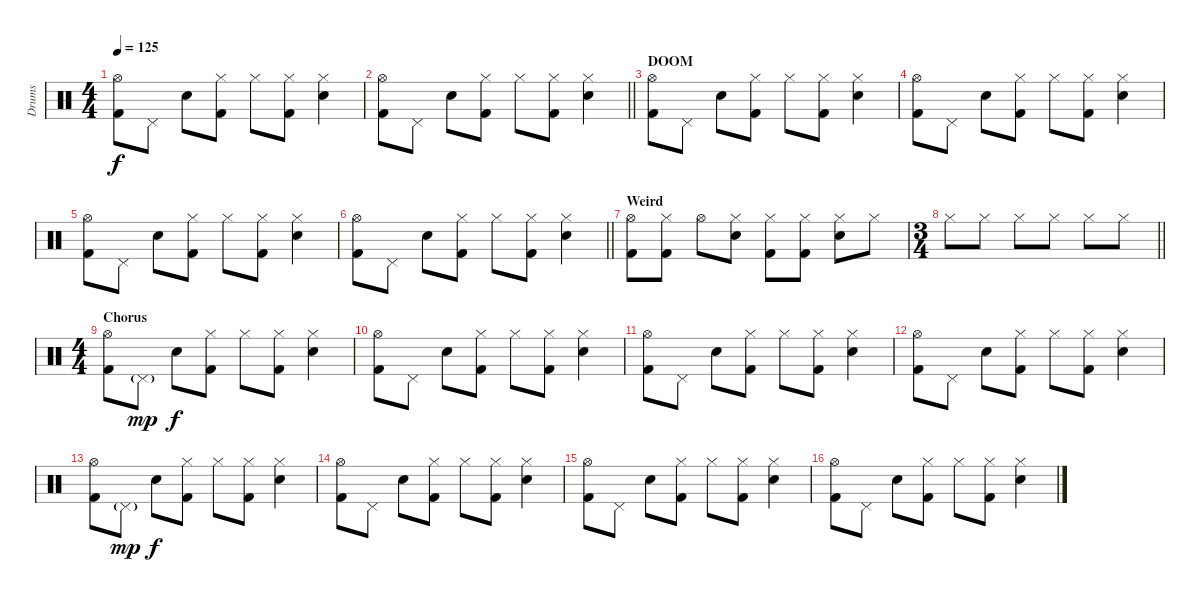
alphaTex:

\track ("Drums" "Drums") {instrument percussion}
\staff {score}
\articulation defaults
\ts (4 4)
\tempo 125
\clef neutral
\ks c
("Hi-Hat (open)" "Kick (hit) 2").8{dy f} "Pedal Hi-Hat (hit)".8 "Hand Clap (hit)".8 ("Hi-Hat (closed)" "Kick (hit) 2").8 "Hi-Hat (closed)".8 ("Hi-Hat (closed)" "Kick (hit) 2").8 ("Hi-Hat (closed)" "Hand Clap (hit)").4 |
\barLineRight lightlight
("Hi-Hat (open)" "Kick (hit) 2").8 "Pedal Hi-Hat (hit)".8 "Hand Clap (hit)".8 ("Hi-Hat (closed)" "Kick (hit) 2").8 "Hi-Hat (closed)".8 ("Hi-Hat (closed)" "Kick (hit) 2").8 ("Hi-Hat (closed)" "Hand Clap (hit)").4 |
\section ("" "DOOM")
("Hi-Hat (open)" "Kick (hit) 2").8 "Pedal Hi-Hat (hit)".8 "Hand Clap (hit)".8 ("Hi-Hat (closed)" "Kick (hit) 2").8 "Hi-Hat (closed)".8 ("Hi-Hat (closed)" "Kick (hit) 2").8 ("Hi-Hat (closed)" "Hand Clap (hit)").4 |
("Hi-Hat (open)" "Kick (hit) 2").8 "Pedal Hi-Hat (hit)".8 "Hand Clap (hit)".8 ("Hi-Hat (closed)" "Kick (hit) 2").8 "Hi-Hat (closed)".8 ("Hi-Hat (closed)" "Kick (hit) 2").8 ("Hi-Hat (closed)" "Hand Clap (hit)").4 |
("Hi-Hat (open)" "Kick (hit) 2").8 "Pedal Hi-Hat (hit)".8 "Hand Clap (hit)".8 ("Hi-Hat (closed)" "Kick (hit) 2").8 "Hi-Hat (closed)".8 ("Hi-Hat (closed)" "Kick (hit) 2").8 ("Hi-Hat (closed)" "Hand Clap (hit)").4 |
\barLineRight lightlight
("Hi-Hat (open)" "Kick (hit) 2").8 "Pedal Hi-Hat (hit)".8 "Hand Clap (hit)".8 ("Hi-Hat (closed)" "Kick (hit) 2").8 "Hi-Hat (closed)".8 ("Hi-Hat (closed)" "Kick (hit) 2").8 ("Hi-Hat (closed)" "Hand Clap (hit)").4 |
\section ("" "Weird")
("Hi-Hat (open)" "Kick (hit) 2").8 ("Hi-Hat (closed)" "Kick (hit) 2").8 "Hi-Hat (open)".8 ("Hi-Hat (closed)" "Electric Snare (hit)").8 ("Hi-Hat (closed)" "Kick (hit) 2").8 ("Hi-Hat (closed)" "Kick (hit) 2").8 ("Hi-Hat (closed)" "Electric Snare (hit)").8 "Hi-Hat (closed)".8 |
\ts (3 4)
\barLineRight lightlight "Hi-Hat (closed)".8 "Hi-Hat (closed)".8 "Hi-Hat (closed)".8 "Hi-Hat (closed)".8 "Hi-Hat (closed)".8 "Hi-Hat (closed)".8
|
\ts (4 4)
\section ("" "Chorus")
("Hi-Hat (open)" "Kick (hit) 2").8 "Pedal Hi-Hat (hit)"{g}.8{dy mp} "Hand Clap (hit)".8{dy f} ("Hi-Hat (closed)" "Kick (hit) 2").8 "Hi-Hat (closed)".8 ("Hi-Hat (closed)" "Kick (hit) 2").8 ("Hi-Hat (closed)" "Hand Clap (hit)").4 |
("Hi-Hat (open)" "Kick (hit) 2").8 "Pedal Hi-Hat (hit)".8 "Hand Clap (hit)".8 ("Hi-Hat (closed)" "Kick (hit) 2").8 "Hi-Hat (closed)".8 ("Hi-Hat (closed)" "Kick (hit) 2").8 ("Hi-Hat (closed)" "Hand Clap (hit)").4 |
("Hi-Hat (open)" "Kick (hit) 2").8 "Pedal Hi-Hat (hit)".8 "Hand Clap (hit)".8 ("Hi-Hat (closed)" "Kick (hit) 2").8 "Hi-Hat (closed)".8 ("Hi-Hat (closed)" "Kick (hit) 2").8 ("Hi-Hat (closed)" "Hand Clap (hit)").4 |
("Hi-Hat (open)" "Kick (hit) 2").8 "Pedal Hi-Hat (hit)".8 "Hand Clap (hit)".8 ("Hi-Hat (closed)" "Kick (hit) 2").8 "Hi-Hat (closed)".8 ("Hi-Hat (closed)" "Kick (hit) 2").8 ("Hi-Hat (closed)" "Hand Clap (hit)").4 |
("Hi-Hat (open)" "Kick (hit) 2").8 "Pedal Hi-Hat (hit)"{g}.8{dy mp} "Hand Clap (hit)".8{dy f} ("Hi-Hat (closed)" "Kick (hit) 2").8 "Hi-Hat (closed)".8 ("Hi-Hat (closed)" "Kick (hit) 2").8 ("Hi-Hat (closed)" "Hand Clap (hit)").4 |
("Hi-Hat (open)" "Kick (hit) 2").8 "Pedal Hi-Hat (hit)".8 "Hand Clap (hit)".8 ("Hi-Hat (closed)" "Kick (hit) 2").8 "Hi-Hat (closed)".8 ("Hi-Hat (closed)" "Kick (hit) 2").8 ("Hi-Hat (closed)" "Hand Clap (hit)").4 |
("Hi-Hat (open)" "Kick (hit) 2").8 "Pedal Hi-Hat (hit)".8 "Hand Clap (hit)".8 ("Hi-Hat (closed)" "Kick (hit) 2").8 "Hi-Hat (closed)".8 ("Hi-Hat (closed)" "Kick (hit) 2").8 ("Hi-Hat (closed)" "Hand Clap (hit)").4 |
("Hi-Hat (open)" "Kick (hit) 2").8 "Pedal Hi-Hat (hit)".8 "Hand Clap (hit)".8 ("Hi-Hat (closed)" "Kick (hit) 2").8 "Hi-Hat (closed)".8 ("Hi-Hat (closed)" "Kick (hit) 2").8 ("Hi-Hat (closed)" "Hand Clap (hit)").4
